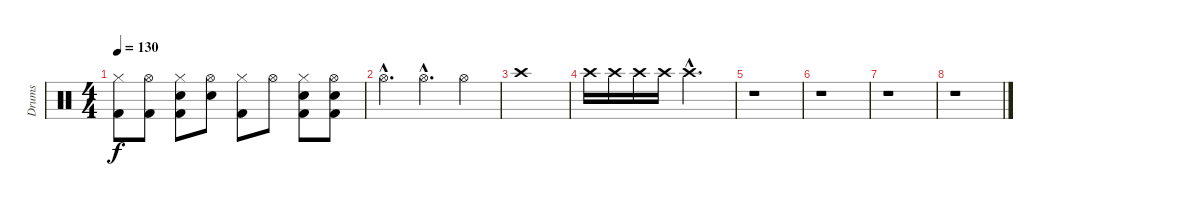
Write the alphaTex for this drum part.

\track ("Drums" "Drums") {instrument percussion}
\staff {score}
\articulation defaults
\ts (4 4)
\tempo 130
\clef neutral
\ks c
("Hi-Hat (closed)" "Kick (hit) 2").8{dy f} ("Hi-Hat (open)" "Kick (hit) 2").8 ("Hi-Hat (closed)" "Snare (hit) 2" "Kick (hit) 2").8 ("Hi-Hat (open)" "Snare (hit) 2").8 ("Hi-Hat (closed)" "Kick (hit) 2").8 "Hi-Hat (open)".8 ("Hi-Hat (closed)" "Snare (hit) 2" "Kick (hit) 2").8 ("Hi-Hat (open)" "Snare (hit) 2" "Kick (hit) 2").8 |
"Hi-Hat (open)"{hac}.4{d} "Hi-Hat (open)"{hac}.4{d} "Hi-Hat (open)".4 |
"Crash high (hit)".1 |
"Crash high (hit)".16 "Crash high (hit)".16 "Crash high (hit)".16 "Crash high (hit)".16 "Crash high (hit)"{hac}.2{d} |
r.1 |
r.1 |
r.1 |
r.1
